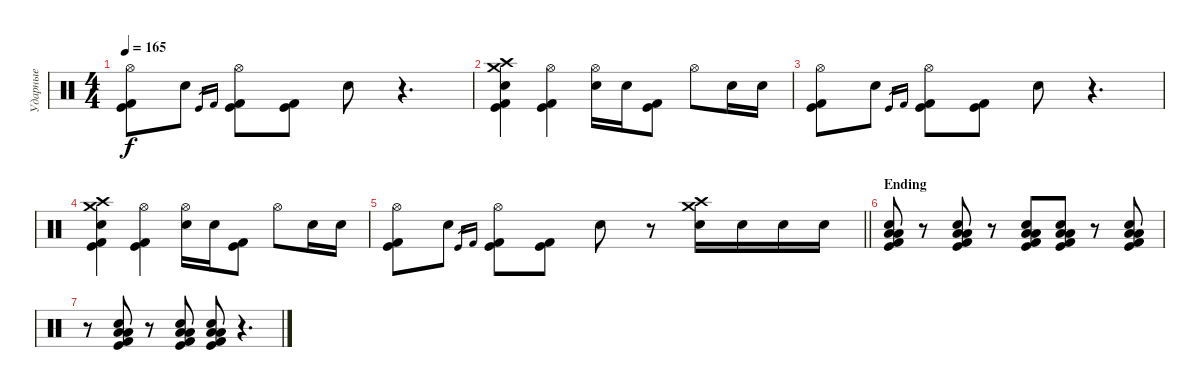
\track ("Ударные" "Ударные") {instrument percussion}
\staff {score}
\articulation defaults
\ts (4 4)
\tempo 165
\clef neutral
\ks c
("Hi-Hat (open)" "Kick (hit)" "Kick (hit) 2").8{dy f} "Electric Snare (hit)".8 "Kick (hit)".16{gr} "Kick (hit) 2".16{gr} ("Hi-Hat (open)" "Kick (hit)" "Kick (hit) 2").8 ("Kick (hit)" "Kick (hit) 2").8 "Electric Snare (hit)".8 r.4{d} |
("Crash high (hit)" "Crash medium (hit)" "Electric Snare (hit)" "Kick (hit)" "Kick (hit) 2").4 ("Hi-Hat (open)" "Kick (hit)" "Kick (hit) 2").4 ("Hi-Hat (open)" "Electric Snare (hit)").16 "Electric Snare (hit)".16 ("Kick (hit)" "Kick (hit) 2").8 "Hi-Hat (open)".8 "Electric Snare (hit)".16 "Electric Snare (hit)".16 |
("Hi-Hat (open)" "Kick (hit)" "Kick (hit) 2").8 "Electric Snare (hit)".8 "Kick (hit)".16{gr} "Kick (hit) 2".16{gr} ("Hi-Hat (open)" "Kick (hit)" "Kick (hit) 2").8 ("Kick (hit)" "Kick (hit) 2").8 "Electric Snare (hit)".8 r.4{d} |
("Crash high (hit)" "Crash medium (hit)" "Electric Snare (hit)" "Kick (hit)" "Kick (hit) 2").4 ("Hi-Hat (open)" "Kick (hit)" "Kick (hit) 2").4 ("Hi-Hat (open)" "Electric Snare (hit)").16 "Electric Snare (hit)".16 ("Kick (hit)" "Kick (hit) 2").8 "Hi-Hat (open)".8 "Electric Snare (hit)".16 "Electric Snare (hit)".16 |
\barLineRight lightlight
("Hi-Hat (open)" "Kick (hit)" "Kick (hit) 2").8 "Electric Snare (hit)".8 "Kick (hit)".16{gr} "Kick (hit) 2".16{gr} ("Hi-Hat (open)" "Kick (hit)" "Kick (hit) 2").8 ("Kick (hit)" "Kick (hit) 2").8 "Electric Snare (hit)".8 r.8 ("Crash high (hit)" "Crash medium (hit)" "Electric Snare (hit)").16 "Electric Snare (hit)".16 "Electric Snare (hit)".16 "Electric Snare (hit)".16 |
\section ("" "Ending")
("Electric Snare (hit)" "Low Tom (hit)" "Low Floor Tom (hit)" "Kick (hit)" "Kick (hit) 2").8 r.8 ("Electric Snare (hit)" "Low Tom (hit)" "Low Floor Tom (hit)" "Kick (hit)" "Kick (hit) 2").8 r.8 ("Electric Snare (hit)" "Low Tom (hit)" "Low Floor Tom (hit)" "Kick (hit)" "Kick (hit) 2").8 ("Electric Snare (hit)" "Low Tom (hit)" "Low Floor Tom (hit)" "Kick (hit)" "Kick (hit) 2").8 r.8 ("Electric Snare (hit)" "Low Tom (hit)" "Low Floor Tom (hit)" "Kick (hit)" "Kick (hit) 2").8 |
r.8 ("Electric Snare (hit)" "Low Tom (hit)" "Low Floor Tom (hit)" "Kick (hit)" "Kick (hit) 2").8 r.8 ("Electric Snare (hit)" "Low Tom (hit)" "Low Floor Tom (hit)" "Kick (hit)" "Kick (hit) 2").8 ("Electric Snare (hit)" "Low Tom (hit)" "Low Floor Tom (hit)" "Kick (hit)" "Kick (hit) 2").8 r.4{d}
